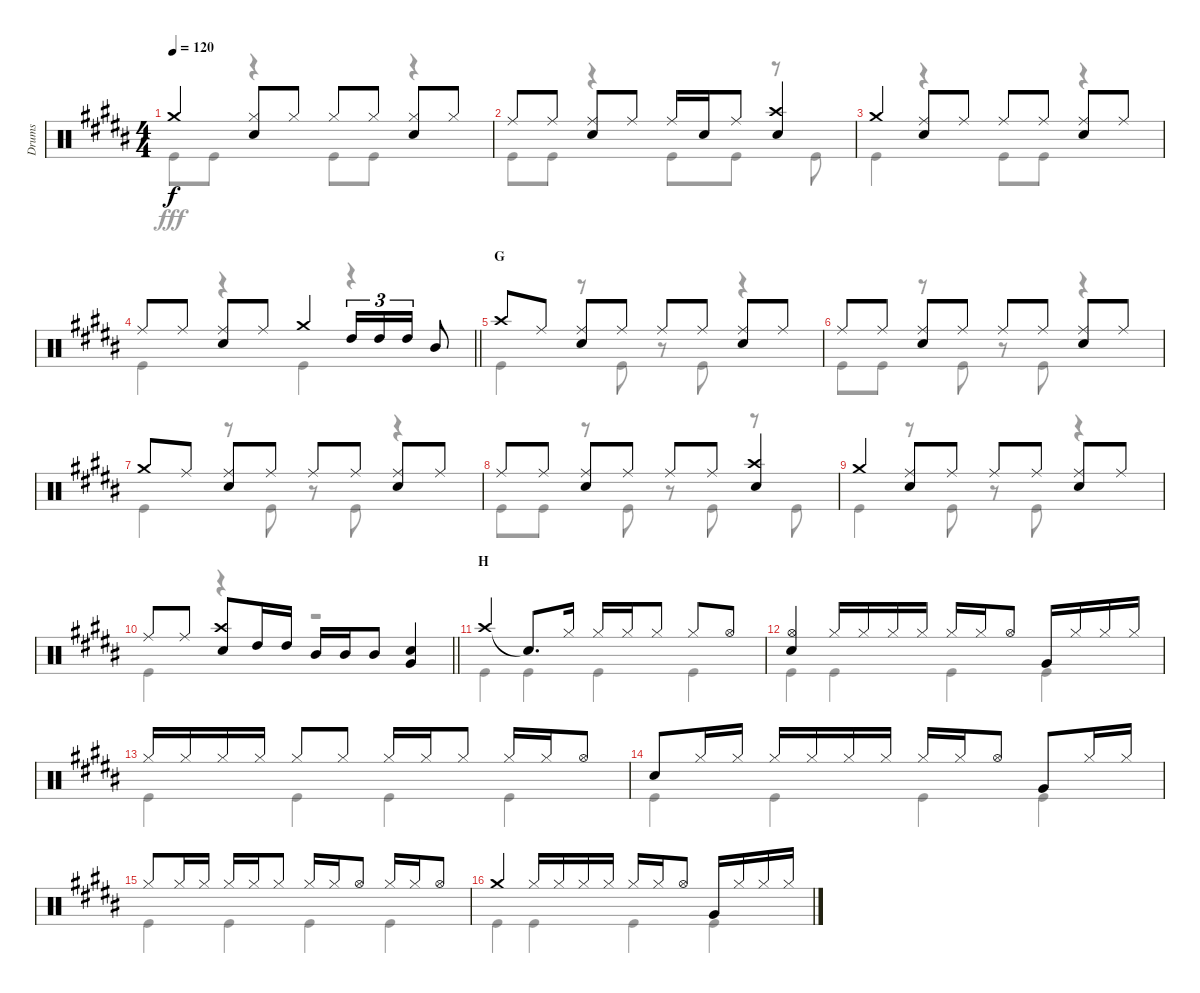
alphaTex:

\track ("Drums" "Drums") {instrument percussion}
\staff {score}
\articulation defaults
\voice
\ts (4 4)
\tempo 120
\clef neutral
\ks b "Crash medium (hit)".4{dy f}
("Hi-Hat (closed)" "Snare (hit) 2").8 "Hi-Hat (closed)".8 "Hi-Hat (closed)".8 "Hi-Hat (closed)".8 ("Hi-Hat (closed)" "Snare (hit) 2").8 "Hi-Hat (closed)".8 |
"Ride (middle)".8 "Ride (middle)".8 ("Ride (middle)" "Snare (hit) 2").8 "Ride (middle)".8 "Ride (middle)".16 "Snare (hit) 2".16 "Ride (middle)".8 ("Crash high (hit)" "Snare (hit) 2").4 |
"Crash medium (hit)".4 ("Ride (middle)" "Snare (hit) 2").8 "Ride (middle)".8 "Ride (middle)".8 "Ride (middle)".8 ("Ride (middle)" "Snare (hit) 2").8 "Ride (middle)".8 |
\barLineRight lightlight "Ride (middle)".8 "Ride (middle)".8
("Ride (middle)" "Snare (hit) 2").8 "Ride (middle)".8 "Crash medium (hit)".4 "High Tom (hit)".16{tu (3 2)} "High Tom (hit)".16{tu (3 2)} "High Tom (hit)".16{tu (3 2)} "Mid Tom (hit)".8 |
\section ("" "G")
"Crash high (hit)".8 "Ride (middle)".8 ("Ride (middle)" "Snare (hit) 2").8 "Ride (middle)".8 "Ride (middle)".8 "Ride (middle)".8 ("Ride (middle)" "Snare (hit) 2").8 "Ride (middle)".8 |
"Ride (middle)".8 "Ride (middle)".8 ("Ride (middle)" "Snare (hit) 2").8 "Ride (middle)".8 "Ride (middle)".8 "Ride (middle)".8 ("Ride (middle)" "Snare (hit) 2").8 "Ride (middle)".8 |
"Crash medium (hit)".8 "Ride (middle)".8 ("Ride (middle)" "Snare (hit) 2").8 "Ride (middle)".8 "Ride (middle)".8 "Ride (middle)".8 ("Ride (middle)" "Snare (hit) 2").8 "Ride (middle)".8 |
"Ride (middle)".8 "Ride (middle)".8 ("Ride (middle)" "Snare (hit) 2").8 "Ride (middle)".8 "Ride (middle)".8 "Ride (middle)".8 ("Crash high (hit)" "Snare (hit) 2").4 |
"Crash medium (hit)".4 ("Ride (middle)" "Snare (hit) 2").8 "Ride (middle)".8 "Ride (middle)".8 "Ride (middle)".8 ("Ride (middle)" "Snare (hit) 2").8 "Ride (middle)".8 |
\barLineRight lightlight "Ride (middle)".8 "Ride (middle)".8
("Crash high (hit)" "Snare (hit) 2").8 "High Tom (hit)".16 "High Tom (hit)".16 "Mid Tom (hit)".16 "Mid Tom (hit)".16 "Mid Tom (hit)".8 ("Snare (hit) 2" "Very Low Tom (hit)").4 |
\section ("" "H")
"Crash high (hit)".4 "Snare (hit)"{t}.8{d} "Hi-Hat (closed)".16 "Hi-Hat (closed)".16 "Hi-Hat (closed)".16 "Hi-Hat (closed)".8 "Hi-Hat (closed)".8 "Hi-Hat (open)".8 |
("Hi-Hat (open)" "Snare (hit) 2").4 "Hi-Hat (closed)".16 "Hi-Hat (closed)".16 "Hi-Hat (closed)".16 "Hi-Hat (closed)".16 "Hi-Hat (closed)".16 "Hi-Hat (closed)".16 "Hi-Hat (open)".8 "Very Low Tom (hit)".16 "Hi-Hat (closed)".16 "Hi-Hat (closed)".16 "Hi-Hat (closed)".16 |
"Hi-Hat (closed)".16 "Hi-Hat (closed)".16 "Hi-Hat (closed)".16 "Hi-Hat (closed)".16 "Hi-Hat (closed)".8 "Hi-Hat (closed)".8 "Hi-Hat (closed)".16 "Hi-Hat (closed)".16 "Hi-Hat (closed)".8 "Hi-Hat (closed)".16 "Hi-Hat (closed)".16 "Hi-Hat (open)".8 |
"Snare (hit) 2".8 "Hi-Hat (closed)".16 "Hi-Hat (closed)".16 "Hi-Hat (closed)".16 "Hi-Hat (closed)".16 "Hi-Hat (closed)".16 "Hi-Hat (closed)".16 "Hi-Hat (closed)".16 "Hi-Hat (closed)".16 "Hi-Hat (open)".8 "Very Low Tom (hit)".8 "Hi-Hat (closed)".16 "Hi-Hat (closed)".16 |
"Hi-Hat (closed)".8 "Hi-Hat (closed)".16 "Hi-Hat (closed)".16 "Hi-Hat (closed)".16 "Hi-Hat (closed)".16 "Hi-Hat (closed)".8 "Hi-Hat (closed)".16 "Hi-Hat (closed)".16 "Hi-Hat (open)".8 "Hi-Hat (closed)".16 "Hi-Hat (closed)".16 "Hi-Hat (open)".8 |
"Crash medium (hit)".4 "Hi-Hat (closed)".16 "Hi-Hat (closed)".16 "Hi-Hat (closed)".16 "Hi-Hat (closed)".16 "Hi-Hat (closed)".16 "Hi-Hat (closed)".16 "Hi-Hat (open)".8 "Very Low Tom (hit)".16 "Hi-Hat (closed)".16 "Hi-Hat (closed)".16 "Hi-Hat (closed)".16
\voice
\clef neutral
\ottava regular
\simile none
\ks b "Kick (hit)".8{dy fff} "Kick (hit)".8
r.4 "Kick (hit)".8 "Kick (hit)".8 r.4 |
"Kick (hit)".8 "Kick (hit)".8 r.4 "Kick (hit)".8 "Kick (hit)".8 r.8 "Kick (hit)".8 |
"Kick (hit)".4 r.4 "Kick (hit)".8 "Kick (hit)".8 r.4 |
\barLineRight lightlight "Kick (hit)".4
r.4 "Kick (hit)".4 r.4 |
"Kick (hit)".4 r.8 "Kick (hit)".8 r.8 "Kick (hit)".8 r.4 |
"Kick (hit)".8 "Kick (hit)".8 r.8 "Kick (hit)".8 r.8 "Kick (hit)".8 r.4 |
"Kick (hit)".4 r.8 "Kick (hit)".8 r.8 "Kick (hit)".8 r.4 |
"Kick (hit)".8 "Kick (hit)".8 r.8 "Kick (hit)".8 r.8 "Kick (hit)".8 r.8 "Kick (hit)".8 |
"Kick (hit)".4 r.8 "Kick (hit)".8 r.8 "Kick (hit)".8 r.4 |
\barLineRight lightlight "Kick (hit)".4
r.4 r.2 |
"Kick (hit)".4 "Kick (hit)".4 "Kick (hit)".4 "Kick (hit)".4 |
"Kick (hit)".4 "Kick (hit)".4 "Kick (hit)".4 "Kick (hit)".4 |
"Kick (hit)".4 "Kick (hit)".4 "Kick (hit)".4 "Kick (hit)".4 |
"Kick (hit)".4 "Kick (hit)".4 "Kick (hit)".4 "Kick (hit)".4 |
"Kick (hit)".4 "Kick (hit)".4 "Kick (hit)".4 "Kick (hit)".4 |
"Kick (hit)".4 "Kick (hit)".4 "Kick (hit)".4 "Kick (hit)".4
